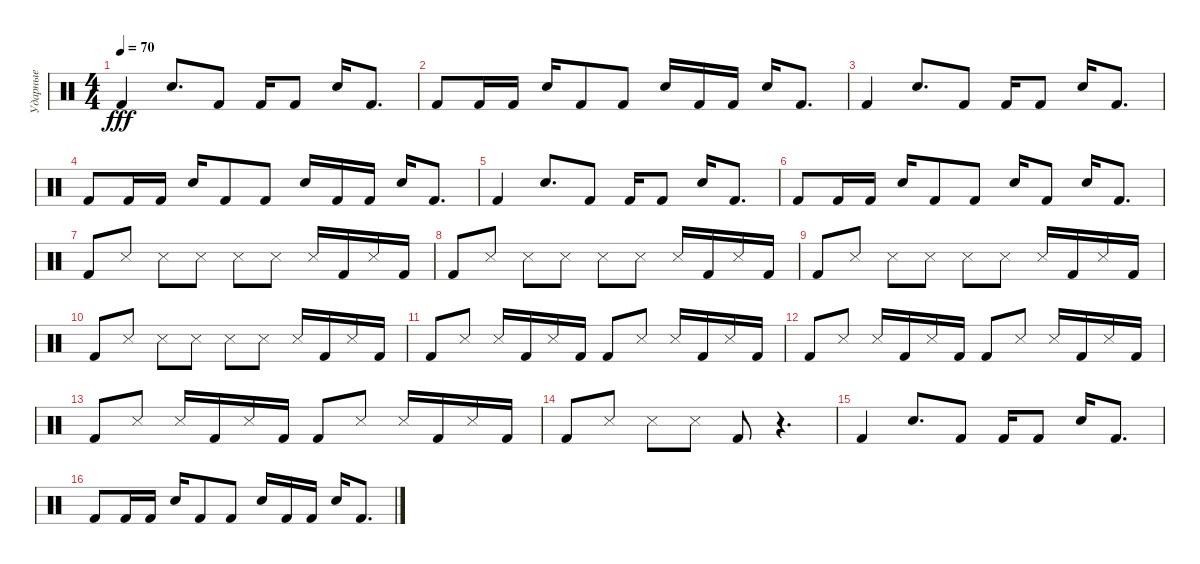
\track ("Ударные" "Ударные") {instrument percussion}
\staff {score}
\articulation defaults
\ts (4 4)
\tempo 70
\clef neutral
\ks c "Kick (hit) 2".4{dy fff} "Electric Snare (hit)".8{d} "Kick (hit) 2".8 "Kick (hit) 2".16 "Kick (hit) 2".8 "Electric Snare (hit)".16 "Kick (hit) 2".8{d}
|
"Kick (hit) 2".8 "Kick (hit) 2".16 "Kick (hit) 2".16 "Electric Snare (hit)".16 "Kick (hit) 2".8 "Kick (hit) 2".8 "Electric Snare (hit)".16 "Kick (hit) 2".16 "Kick (hit) 2".16 "Electric Snare (hit)".16 "Kick (hit) 2".8{d} |
"Kick (hit) 2".4 "Electric Snare (hit)".8{d} "Kick (hit) 2".8 "Kick (hit) 2".16 "Kick (hit) 2".8 "Electric Snare (hit)".16 "Kick (hit) 2".8{d} |
"Kick (hit) 2".8 "Kick (hit) 2".16 "Kick (hit) 2".16 "Electric Snare (hit)".16 "Kick (hit) 2".8 "Kick (hit) 2".8 "Electric Snare (hit)".16 "Kick (hit) 2".16 "Kick (hit) 2".16 "Electric Snare (hit)".16 "Kick (hit) 2".8{d} |
"Kick (hit) 2".4 "Electric Snare (hit)".8{d} "Kick (hit) 2".8 "Kick (hit) 2".16 "Kick (hit) 2".8 "Electric Snare (hit)".16 "Kick (hit) 2".8{d} |
"Kick (hit) 2".8 "Kick (hit) 2".16 "Kick (hit) 2".16 "Electric Snare (hit)".16 "Kick (hit) 2".8 "Kick (hit) 2".8 "Electric Snare (hit)".16 "Kick (hit) 2".8 "Electric Snare (hit)".16 "Kick (hit) 2".8{d} |
"Kick (hit) 2".8 "Snare (side stick) 3".8 "Snare (side stick) 3".8 "Snare (side stick) 3".8 "Snare (side stick) 3".8 "Snare (side stick) 3".8 "Snare (side stick) 3".16 "Kick (hit) 2".16 "Snare (side stick) 3".16 "Kick (hit) 2".16 |
"Kick (hit) 2".8 "Snare (side stick) 3".8 "Snare (side stick) 3".8 "Snare (side stick) 3".8 "Snare (side stick) 3".8 "Snare (side stick) 3".8 "Snare (side stick) 3".16 "Kick (hit) 2".16 "Snare (side stick) 3".16 "Kick (hit) 2".16 |
"Kick (hit) 2".8 "Snare (side stick) 3".8 "Snare (side stick) 3".8 "Snare (side stick) 3".8 "Snare (side stick) 3".8 "Snare (side stick) 3".8 "Snare (side stick) 3".16 "Kick (hit) 2".16 "Snare (side stick) 3".16 "Kick (hit) 2".16 |
"Kick (hit) 2".8 "Snare (side stick) 3".8 "Snare (side stick) 3".8 "Snare (side stick) 3".8 "Snare (side stick) 3".8 "Snare (side stick) 3".8 "Snare (side stick) 3".16 "Kick (hit) 2".16 "Snare (side stick) 3".16 "Kick (hit) 2".16 |
"Kick (hit) 2".8 "Snare (side stick) 3".8 "Snare (side stick) 3".16 "Kick (hit) 2".16 "Snare (side stick) 3".16 "Kick (hit) 2".16 "Kick (hit) 2".8 "Snare (side stick) 3".8 "Snare (side stick) 3".16 "Kick (hit) 2".16 "Snare (side stick) 3".16 "Kick (hit) 2".16 |
"Kick (hit) 2".8 "Snare (side stick) 3".8 "Snare (side stick) 3".16 "Kick (hit) 2".16 "Snare (side stick) 3".16 "Kick (hit) 2".16 "Kick (hit) 2".8 "Snare (side stick) 3".8 "Snare (side stick) 3".16 "Kick (hit) 2".16 "Snare (side stick) 3".16 "Kick (hit) 2".16 |
"Kick (hit) 2".8 "Snare (side stick) 3".8 "Snare (side stick) 3".16 "Kick (hit) 2".16 "Snare (side stick) 3".16 "Kick (hit) 2".16 "Kick (hit) 2".8 "Snare (side stick) 3".8 "Snare (side stick) 3".16 "Kick (hit) 2".16 "Snare (side stick) 3".16 "Kick (hit) 2".16 |
"Kick (hit) 2".8 "Snare (side stick) 3".8 "Snare (side stick) 3".8 "Snare (side stick) 3".8 "Kick (hit) 2".8 r.4{d} |
"Kick (hit) 2".4 "Electric Snare (hit)".8{d} "Kick (hit) 2".8 "Kick (hit) 2".16 "Kick (hit) 2".8 "Electric Snare (hit)".16 "Kick (hit) 2".8{d} |
"Kick (hit) 2".8 "Kick (hit) 2".16 "Kick (hit) 2".16 "Electric Snare (hit)".16 "Kick (hit) 2".8 "Kick (hit) 2".8 "Electric Snare (hit)".16 "Kick (hit) 2".16 "Kick (hit) 2".16 "Electric Snare (hit)".16 "Kick (hit) 2".8{d}
